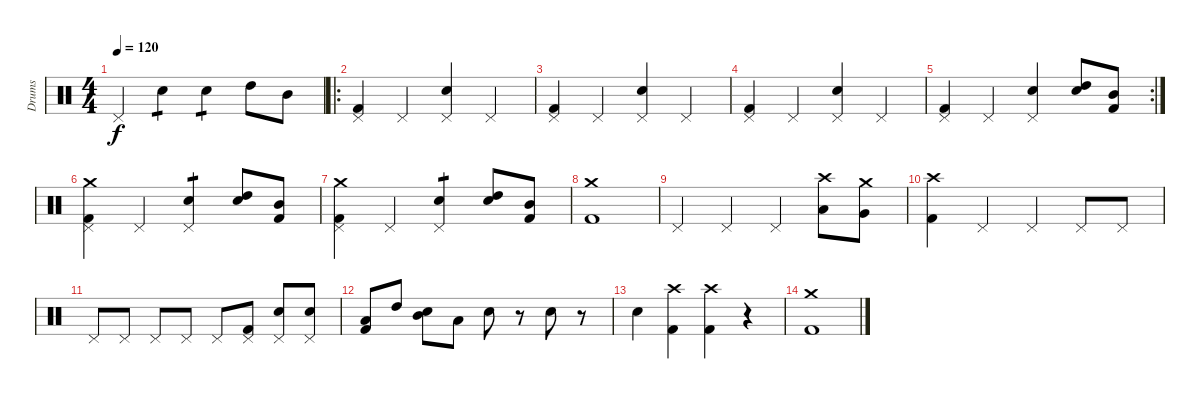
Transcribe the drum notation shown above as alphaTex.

\track ("Drums" "Drums") {instrument percussion}
\staff {score}
\articulation defaults
\ts (4 4)
\tempo 120
\clef neutral
\ks c "Pedal Hi-Hat (hit)".4{dy f} "Snare (hit) 2".4{tp 1} "Snare (hit) 2".4{tp 1} "High Tom (hit)".8 "Mid Tom (hit)".8
|
\ro
("Kick (hit) 2" "Pedal Hi-Hat (hit)").4 "Pedal Hi-Hat (hit)".4 ("Snare (hit) 2" "Pedal Hi-Hat (hit)").4 "Pedal Hi-Hat (hit)".4 |
("Kick (hit) 2" "Pedal Hi-Hat (hit)").4 "Pedal Hi-Hat (hit)".4 ("Snare (hit) 2" "Pedal Hi-Hat (hit)").4 "Pedal Hi-Hat (hit)".4 |
("Kick (hit) 2" "Pedal Hi-Hat (hit)").4 "Pedal Hi-Hat (hit)".4 ("Snare (hit) 2" "Pedal Hi-Hat (hit)").4 "Pedal Hi-Hat (hit)".4 |
\rc 2
("Kick (hit) 2" "Pedal Hi-Hat (hit)").4 "Pedal Hi-Hat (hit)".4 ("Snare (hit) 2" "Pedal Hi-Hat (hit)").4 ("Snare (hit) 2" "High Tom (hit)").8 ("Kick (hit) 2" "Mid Tom (hit)").8 |
("Kick (hit) 2" "Pedal Hi-Hat (hit)" "Crash medium (hit)").4 "Pedal Hi-Hat (hit)".4 ("Snare (hit) 2" "Pedal Hi-Hat (hit)").4{tp 1} ("Snare (hit) 2" "High Tom (hit)").8 ("Kick (hit) 2" "Mid Tom (hit)").8 |
("Kick (hit) 2" "Pedal Hi-Hat (hit)" "Crash medium (hit)").4 "Pedal Hi-Hat (hit)".4 ("Snare (hit) 2" "Pedal Hi-Hat (hit)").4{tp 1} ("Snare (hit) 2" "High Tom (hit)").8 ("Kick (hit) 2" "Mid Tom (hit)").8 |
("Crash medium (hit)" "Kick (hit) 2").1 |
"Pedal Hi-Hat (hit)".4 "Pedal Hi-Hat (hit)".4 "Pedal Hi-Hat (hit)".4 ("Low Tom (hit)" "Crash high (hit)").8 ("Very Low Tom (hit)" "Crash medium (hit)").8 |
("Kick (hit) 2" "Crash high (hit)").4 "Pedal Hi-Hat (hit)".4 "Pedal Hi-Hat (hit)".4 "Pedal Hi-Hat (hit)".8 "Pedal Hi-Hat (hit)".8 |
"Pedal Hi-Hat (hit)".8 "Pedal Hi-Hat (hit)".8 "Pedal Hi-Hat (hit)".8 "Pedal Hi-Hat (hit)".8 "Pedal Hi-Hat (hit)".8 ("Kick (hit) 2" "Pedal Hi-Hat (hit)").8 ("Snare (hit) 2" "Pedal Hi-Hat (hit)").8 ("Snare (hit) 2" "Pedal Hi-Hat (hit)").8 |
("Kick (hit) 2" "Low Floor Tom (hit)").8 "High Tom (hit)".8 ("Snare (hit) 2" "Mid Tom (hit)").8 "Low Tom (hit)".8 "Snare (hit) 2".8 r.8 "Snare (hit) 2".8 r.8 |
"Snare (hit) 2".4 ("Kick (hit) 2" "Crash high (hit)").4 ("Kick (hit) 2" "Crash high (hit)").4 r.4 |
("Kick (hit) 2" "Crash medium (hit)").1
